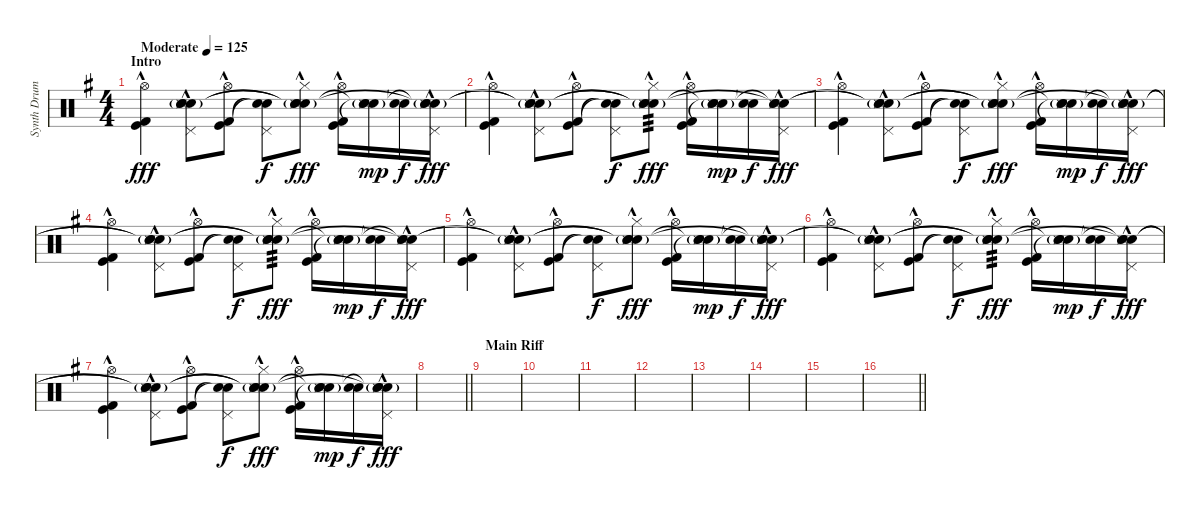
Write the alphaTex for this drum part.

\track ("Synth Drums" "Synth Drum") {instrument percussion}
\staff {score}
\articulation defaults
\ts (4 4)
\section ("" "Intro")
\tempo (125 "Moderate")
\clef neutral
\ks eminor
("Hi-Hat (open)"{hac} "Kick (hit) 2"{hac} "Kick (hit)"{hac}).4{dy fff} ("Pedal Hi-Hat (hit)" "Snare (hit) 2"{g} "Snare (side stick) 3"{hac} "Snare (hit)" "Snare (hit)").8 ("Hi-Hat (open)" "Kick (hit) 2"{hac} "Kick (hit)"{hac}).8 ("Pedal Hi-Hat (hit)" "Snare (hit)"{t} "Snare (hit)"{t}).8{dy f} ("Hi-Hat (closed)" "Snare (hit) 2"{g} "Snare (side stick) 3"{hac} "Snare (hit)"{t} "Snare (hit)"{t}).8{dy fff} ("Hi-Hat (open)" "Kick (hit) 2"{hac} "Kick (hit)"{hac}).16 ("Snare (hit) 2"{g} "Snare (side stick) 3" "Snare (hit)"{t} "Snare (hit)"{t}).16{dy mp} ("Snare (hit)"{t} "Snare (hit)"{t}).16{dy f} ("Pedal Hi-Hat (hit)" "Snare (hit) 2"{g} "Snare (side stick) 3"{hac} "Snare (hit)"{t} "Snare (hit)"{t}).16{dy fff} |
("Hi-Hat (open)"{hac} "Kick (hit) 2"{hac} "Kick (hit)"{hac}).4 ("Pedal Hi-Hat (hit)" "Snare (hit) 2"{g} "Snare (side stick) 3"{hac} "Snare (hit)"{t} "Snare (hit)"{t}).8 ("Hi-Hat (open)" "Kick (hit) 2"{hac} "Kick (hit)"{hac}).8 ("Pedal Hi-Hat (hit)" "Snare (hit)"{t} "Snare (hit)"{t}).8{dy f} ("Hi-Hat (closed)" "Snare (hit) 2"{g} "Snare (side stick) 3"{hac} "Snare (hit)"{t} "Snare (hit)"{t}).8{tp 3 dy fff} ("Hi-Hat (open)" "Kick (hit) 2"{hac} "Kick (hit)"{hac}).16 ("Snare (hit) 2"{g} "Snare (side stick) 3"{g} "Snare (hit)"{t} "Snare (hit)"{t}).16{dy mp} ("Snare (hit)"{t} "Snare (hit)"{t}).16{dy f} ("Pedal Hi-Hat (hit)" "Snare (hit) 2" "Snare (side stick) 3"{hac} "Snare (hit)"{t} "Snare (hit)"{t}).16{dy fff} |
("Hi-Hat (open)"{hac} "Kick (hit) 2"{hac} "Kick (hit)"{hac}).4 ("Pedal Hi-Hat (hit)" "Snare (hit) 2"{g} "Snare (side stick) 3"{hac} "Snare (hit)"{t} "Snare (hit)"{t}).8 ("Hi-Hat (open)" "Kick (hit) 2"{hac} "Kick (hit)"{hac}).8 ("Pedal Hi-Hat (hit)" "Snare (hit)"{t} "Snare (hit)"{t}).8{dy f} ("Hi-Hat (closed)" "Snare (hit) 2"{g} "Snare (side stick) 3"{hac} "Snare (hit)"{t} "Snare (hit)"{t}).8{dy fff} ("Hi-Hat (open)" "Kick (hit) 2"{hac} "Kick (hit)"{hac}).16 ("Snare (hit) 2"{g} "Snare (side stick) 3" "Snare (hit)"{t} "Snare (hit)"{t}).16{dy mp} ("Snare (hit)"{t} "Snare (hit)"{t}).16{dy f} ("Pedal Hi-Hat (hit)" "Snare (hit) 2"{g} "Snare (side stick) 3"{hac} "Snare (hit)"{t} "Snare (hit)"{t}).16{dy fff} |
("Hi-Hat (open)"{hac} "Kick (hit) 2"{hac} "Kick (hit)"{hac}).4 ("Pedal Hi-Hat (hit)" "Snare (hit) 2"{g} "Snare (side stick) 3"{hac} "Snare (hit)"{t} "Snare (hit)"{t}).8 ("Hi-Hat (open)" "Kick (hit) 2"{hac} "Kick (hit)"{hac}).8 ("Pedal Hi-Hat (hit)" "Snare (hit)"{t} "Snare (hit)"{t}).8{dy f} ("Hi-Hat (closed)" "Snare (hit) 2"{g} "Snare (side stick) 3"{hac} "Snare (hit)"{t} "Snare (hit)"{t}).8{tp 3 dy fff} ("Hi-Hat (open)" "Kick (hit) 2"{hac} "Kick (hit)"{hac}).16 ("Snare (hit) 2"{g} "Snare (side stick) 3"{g} "Snare (hit)"{t} "Snare (hit)"{t}).16{dy mp} ("Snare (hit)"{t} "Snare (hit)"{t}).16{dy f} ("Pedal Hi-Hat (hit)" "Snare (hit) 2" "Snare (side stick) 3"{hac} "Snare (hit)"{t} "Snare (hit)"{t}).16{dy fff} |
("Hi-Hat (open)"{hac} "Kick (hit) 2"{hac} "Kick (hit)"{hac}).4 ("Pedal Hi-Hat (hit)" "Snare (hit) 2"{g} "Snare (side stick) 3"{hac} "Snare (hit)"{t} "Snare (hit)"{t}).8 ("Hi-Hat (open)" "Kick (hit) 2"{hac} "Kick (hit)"{hac}).8 ("Pedal Hi-Hat (hit)" "Snare (hit)"{t} "Snare (hit)"{t}).8{dy f} ("Hi-Hat (closed)" "Snare (hit) 2"{g} "Snare (side stick) 3"{hac} "Snare (hit)"{t} "Snare (hit)"{t}).8{dy fff} ("Hi-Hat (open)" "Kick (hit) 2"{hac} "Kick (hit)"{hac}).16 ("Snare (hit) 2"{g} "Snare (side stick) 3" "Snare (hit)"{t} "Snare (hit)"{t}).16{dy mp} ("Snare (hit)"{t} "Snare (hit)"{t}).16{dy f} ("Pedal Hi-Hat (hit)" "Snare (hit) 2"{g} "Snare (side stick) 3"{hac} "Snare (hit)"{t} "Snare (hit)"{t}).16{dy fff} |
("Hi-Hat (open)"{hac} "Kick (hit) 2"{hac} "Kick (hit)"{hac}).4 ("Pedal Hi-Hat (hit)" "Snare (hit) 2"{g} "Snare (side stick) 3"{hac} "Snare (hit)"{t} "Snare (hit)"{t}).8 ("Hi-Hat (open)" "Kick (hit) 2"{hac} "Kick (hit)"{hac}).8 ("Pedal Hi-Hat (hit)" "Snare (hit)"{t} "Snare (hit)"{t}).8{dy f} ("Hi-Hat (closed)" "Snare (hit) 2"{g} "Snare (side stick) 3"{hac} "Snare (hit)"{t} "Snare (hit)"{t}).8{tp 3 dy fff} ("Hi-Hat (open)" "Kick (hit) 2"{hac} "Kick (hit)"{hac}).16 ("Snare (hit) 2"{g} "Snare (side stick) 3"{g} "Snare (hit)"{t} "Snare (hit)"{t}).16{dy mp} ("Snare (hit)"{t} "Snare (hit)"{t}).16{dy f} ("Pedal Hi-Hat (hit)" "Snare (hit) 2" "Snare (side stick) 3"{hac} "Snare (hit)"{t} "Snare (hit)"{t}).16{dy fff} |
("Hi-Hat (open)"{hac} "Kick (hit) 2"{hac} "Kick (hit)"{hac}).4 ("Pedal Hi-Hat (hit)" "Snare (hit) 2"{g} "Snare (side stick) 3"{hac} "Snare (hit)"{t} "Snare (hit)"{t}).8 ("Hi-Hat (open)" "Kick (hit) 2"{hac} "Kick (hit)"{hac}).8 ("Pedal Hi-Hat (hit)" "Snare (hit)"{t} "Snare (hit)"{t}).8{dy f} ("Hi-Hat (closed)" "Snare (hit) 2"{g} "Snare (side stick) 3"{hac} "Snare (hit)"{t} "Snare (hit)"{t}).8{dy fff} ("Hi-Hat (open)" "Kick (hit) 2"{hac} "Kick (hit)"{hac}).16 ("Snare (hit) 2"{g} "Snare (side stick) 3" "Snare (hit)"{t} "Snare (hit)"{t}).16{dy mp} ("Snare (hit)"{t} "Snare (hit)"{t}).16{dy f} ("Pedal Hi-Hat (hit)" "Snare (hit) 2"{g} "Snare (side stick) 3"{hac} "Snare (hit)"{t} "Snare (hit)"{t}).16{dy fff} |
\barLineRight lightlight
|
\section ("" "Main Riff")
|
|
|
|
|
|
|
\barLineRight lightlight
